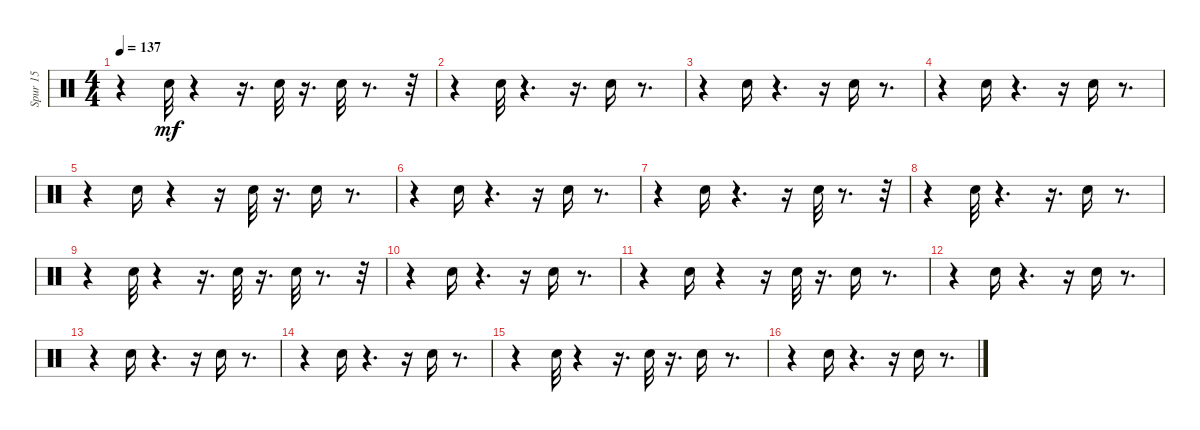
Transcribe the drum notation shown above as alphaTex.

\track ("Spur 15" "Spur 15") {instrument percussion}
\staff {score}
\articulation defaults
\ts (4 4)
\tempo 137
\clef neutral
\ks c
r.4{dy mf} "Hand Clap (hit)".32 r.4 r.16{d} "Hand Clap (hit)".32 r.16{d} "Hand Clap (hit)".32 r.8{d} r.32 |
r.4 "Hand Clap (hit)".32 r.4{d} r.16{d} "Hand Clap (hit)".16 r.8{d} |
r.4 "Hand Clap (hit)".16 r.4{d} r.16 "Hand Clap (hit)".16 r.8{d} |
r.4 "Hand Clap (hit)".16 r.4{d} r.16 "Hand Clap (hit)".16 r.8{d} |
r.4 "Hand Clap (hit)".16 r.4 r.16 "Hand Clap (hit)".32 r.16{d} "Hand Clap (hit)".16 r.8{d} |
r.4 "Hand Clap (hit)".16 r.4{d} r.16 "Hand Clap (hit)".16 r.8{d} |
r.4 "Hand Clap (hit)".16 r.4{d} r.16 "Hand Clap (hit)".32 r.8{d} r.32 |
r.4 "Hand Clap (hit)".32 r.4{d} r.16{d} "Hand Clap (hit)".16 r.8{d} |
r.4 "Hand Clap (hit)".32 r.4 r.16{d} "Hand Clap (hit)".32 r.16{d} "Hand Clap (hit)".32 r.8{d} r.32 |
r.4 "Hand Clap (hit)".16 r.4{d} r.16 "Hand Clap (hit)".16 r.8{d} |
r.4 "Hand Clap (hit)".16 r.4 r.16 "Hand Clap (hit)".32 r.16{d} "Hand Clap (hit)".16 r.8{d} |
r.4 "Hand Clap (hit)".16 r.4{d} r.16 "Hand Clap (hit)".16 r.8{d} |
r.4 "Hand Clap (hit)".16 r.4{d} r.16 "Hand Clap (hit)".16 r.8{d} |
r.4 "Hand Clap (hit)".16 r.4{d} r.16 "Hand Clap (hit)".16 r.8{d} |
r.4 "Hand Clap (hit)".32 r.4 r.16{d} "Hand Clap (hit)".32 r.16{d} "Hand Clap (hit)".16 r.8{d} |
r.4 "Hand Clap (hit)".16 r.4{d} r.16 "Hand Clap (hit)".16 r.8{d}
